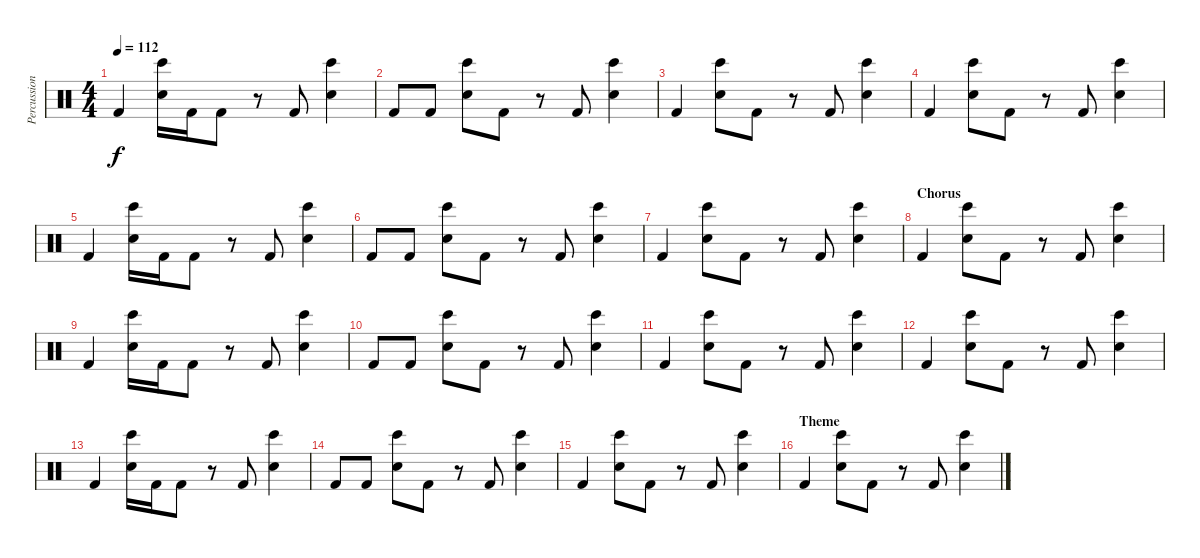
\track ("Percussion" "Percussion") {instrument percussion}
\staff {score}
\articulation defaults
\ts (4 4)
\tempo 112
\clef neutral
\ks c "Kick (hit) 2".4{dy f}
("Bongo High (hit)" "Hand Clap (hit)").16 "Kick (hit) 2".16 "Kick (hit) 2".8 r.8 "Kick (hit) 2".8 ("Bongo High (hit)" "Hand Clap (hit)").4 |
"Kick (hit) 2".8 "Kick (hit) 2".8 ("Bongo High (hit)" "Hand Clap (hit)").8 "Kick (hit) 2".8 r.8 "Kick (hit) 2".8 ("Bongo High (hit)" "Hand Clap (hit)").4 |
"Kick (hit) 2".4 ("Bongo High (hit)" "Hand Clap (hit)").8 "Kick (hit) 2".8 r.8 "Kick (hit) 2".8 ("Bongo High (hit)" "Hand Clap (hit)").4 |
"Kick (hit) 2".4 ("Bongo High (hit)" "Hand Clap (hit)").8 "Kick (hit) 2".8 r.8 "Kick (hit) 2".8 ("Bongo High (hit)" "Hand Clap (hit)").4 |
"Kick (hit) 2".4 ("Bongo High (hit)" "Hand Clap (hit)").16 "Kick (hit) 2".16 "Kick (hit) 2".8 r.8 "Kick (hit) 2".8 ("Bongo High (hit)" "Hand Clap (hit)").4 |
"Kick (hit) 2".8 "Kick (hit) 2".8 ("Bongo High (hit)" "Hand Clap (hit)").8 "Kick (hit) 2".8 r.8 "Kick (hit) 2".8 ("Bongo High (hit)" "Hand Clap (hit)").4 |
"Kick (hit) 2".4 ("Bongo High (hit)" "Hand Clap (hit)").8 "Kick (hit) 2".8 r.8 "Kick (hit) 2".8 ("Bongo High (hit)" "Hand Clap (hit)").4 |
\section ("" "Chorus")
"Kick (hit) 2".4 ("Bongo High (hit)" "Hand Clap (hit)").8 "Kick (hit) 2".8 r.8 "Kick (hit) 2".8 ("Bongo High (hit)" "Hand Clap (hit)").4 |
"Kick (hit) 2".4 ("Bongo High (hit)" "Hand Clap (hit)").16 "Kick (hit) 2".16 "Kick (hit) 2".8 r.8 "Kick (hit) 2".8 ("Bongo High (hit)" "Hand Clap (hit)").4 |
"Kick (hit) 2".8 "Kick (hit) 2".8 ("Bongo High (hit)" "Hand Clap (hit)").8 "Kick (hit) 2".8 r.8 "Kick (hit) 2".8 ("Bongo High (hit)" "Hand Clap (hit)").4 |
"Kick (hit) 2".4 ("Bongo High (hit)" "Hand Clap (hit)").8 "Kick (hit) 2".8 r.8 "Kick (hit) 2".8 ("Bongo High (hit)" "Hand Clap (hit)").4 |
"Kick (hit) 2".4 ("Bongo High (hit)" "Hand Clap (hit)").8 "Kick (hit) 2".8 r.8 "Kick (hit) 2".8 ("Bongo High (hit)" "Hand Clap (hit)").4 |
"Kick (hit) 2".4 ("Bongo High (hit)" "Hand Clap (hit)").16 "Kick (hit) 2".16 "Kick (hit) 2".8 r.8 "Kick (hit) 2".8 ("Bongo High (hit)" "Hand Clap (hit)").4 |
"Kick (hit) 2".8 "Kick (hit) 2".8 ("Bongo High (hit)" "Hand Clap (hit)").8 "Kick (hit) 2".8 r.8 "Kick (hit) 2".8 ("Bongo High (hit)" "Hand Clap (hit)").4 |
"Kick (hit) 2".4 ("Bongo High (hit)" "Hand Clap (hit)").8 "Kick (hit) 2".8 r.8 "Kick (hit) 2".8 ("Bongo High (hit)" "Hand Clap (hit)").4 |
\section ("" "Theme")
"Kick (hit) 2".4 ("Bongo High (hit)" "Hand Clap (hit)").8 "Kick (hit) 2".8 r.8 "Kick (hit) 2".8 ("Bongo High (hit)" "Hand Clap (hit)").4
